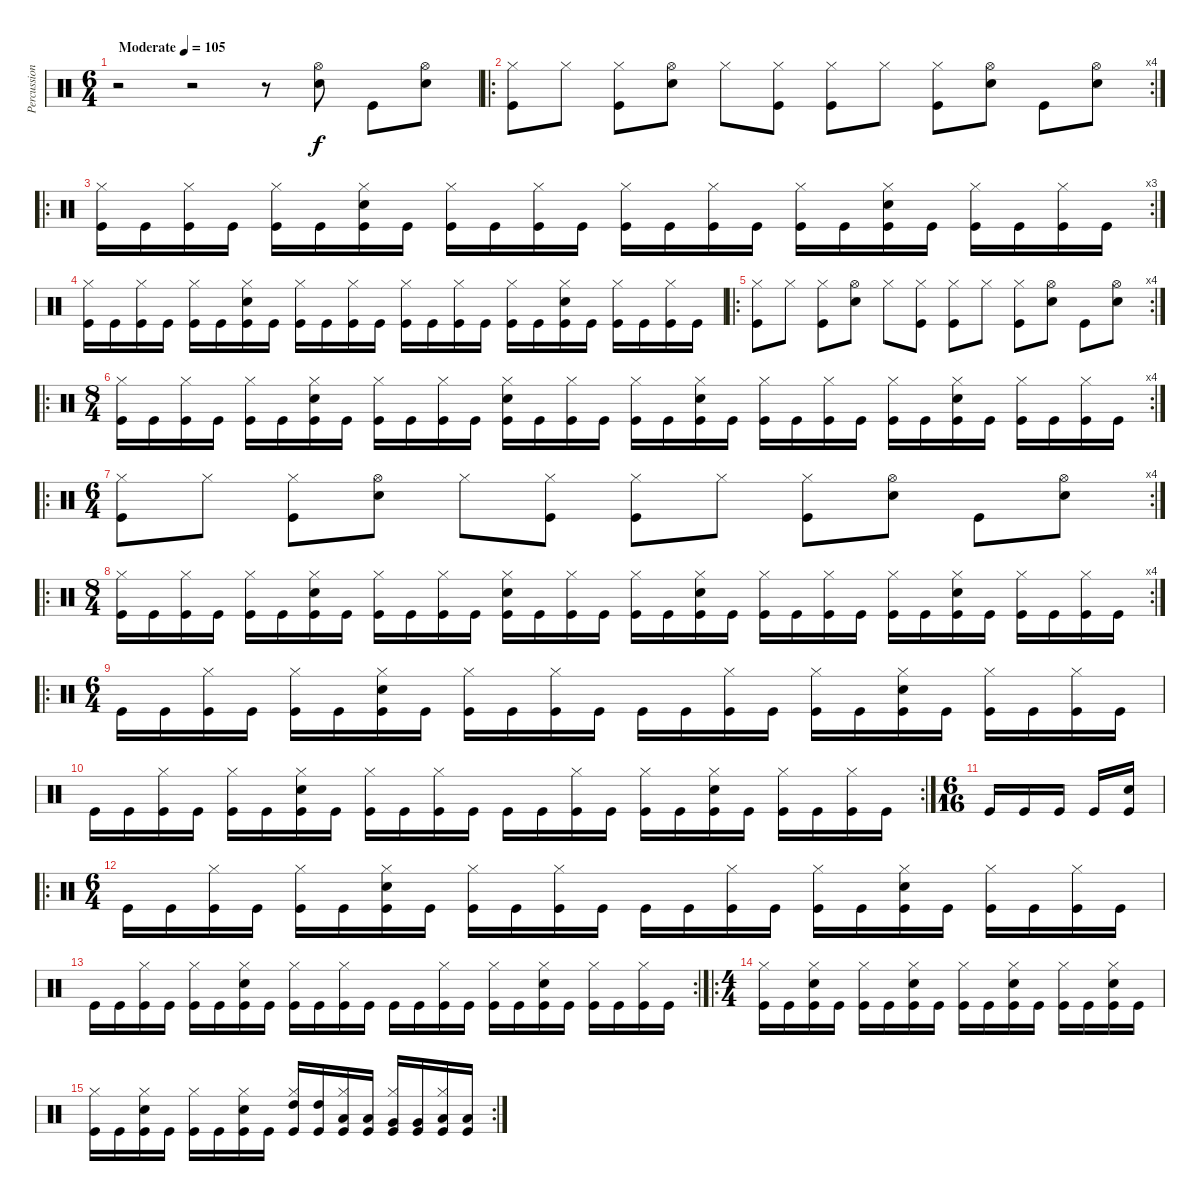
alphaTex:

\track ("Percussion" "Percussion") {instrument percussion}
\staff {score}
\articulation defaults
\ts (6 4)
\tempo (105 "Moderate")
\clef neutral
\ks c
r.2{dy f} r.2 r.8 ("Hi-Hat (open)" "Snare (hit) 2").8 "Kick (hit)".8 ("Hi-Hat (open)" "Snare (hit) 2").8 |
\ro
\rc 4
("Hi-Hat (closed)" "Kick (hit)").8 "Hi-Hat (closed)".8 ("Hi-Hat (closed)" "Kick (hit)").8 ("Hi-Hat (open)" "Electric Snare (hit)").8 "Hi-Hat (closed)".8 ("Hi-Hat (closed)" "Kick (hit)").8 ("Hi-Hat (closed)" "Kick (hit)").8 "Hi-Hat (closed)".8 ("Hi-Hat (closed)" "Kick (hit)").8 ("Hi-Hat (open)" "Electric Snare (hit)").8 "Kick (hit)".8 ("Hi-Hat (open)" "Electric Snare (hit)").8 |
\ro
\rc 3
("Hi-Hat (closed)" "Kick (hit)").16 "Kick (hit)".16 ("Hi-Hat (closed)" "Kick (hit)").16 "Kick (hit)".16 ("Hi-Hat (closed)" "Kick (hit)").16 "Kick (hit)".16 ("Hi-Hat (closed)" "Electric Snare (hit)" "Kick (hit)").16 "Kick (hit)".16 ("Hi-Hat (closed)" "Kick (hit)").16 "Kick (hit)".16 ("Hi-Hat (closed)" "Kick (hit)").16 "Kick (hit)".16 ("Hi-Hat (closed)" "Kick (hit)").16 "Kick (hit)".16 ("Hi-Hat (closed)" "Kick (hit)").16 "Kick (hit)".16 ("Hi-Hat (closed)" "Kick (hit)").16 "Kick (hit)".16 ("Hi-Hat (closed)" "Electric Snare (hit)" "Kick (hit)").16 "Kick (hit)".16 ("Hi-Hat (closed)" "Kick (hit)").16 "Kick (hit)".16 ("Hi-Hat (closed)" "Kick (hit)").16 "Kick (hit)".16 |
("Hi-Hat (closed)" "Kick (hit)").16 "Kick (hit)".16 ("Hi-Hat (closed)" "Kick (hit)").16 "Kick (hit)".16 ("Hi-Hat (closed)" "Kick (hit)").16 "Kick (hit)".16 ("Hi-Hat (closed)" "Electric Snare (hit)" "Kick (hit)").16 "Kick (hit)".16 ("Hi-Hat (closed)" "Kick (hit)").16 "Kick (hit)".16 ("Hi-Hat (closed)" "Kick (hit)").16 "Kick (hit)".16 ("Hi-Hat (closed)" "Kick (hit)").16 "Kick (hit)".16 ("Hi-Hat (closed)" "Kick (hit)").16 "Kick (hit)".16 ("Hi-Hat (closed)" "Kick (hit)").16 "Kick (hit)".16 ("Hi-Hat (closed)" "Electric Snare (hit)" "Kick (hit)").16 "Kick (hit)".16 ("Hi-Hat (closed)" "Kick (hit)").16 "Kick (hit)".16 ("Hi-Hat (closed)" "Kick (hit)").16 "Kick (hit)".16 |
\ro
\rc 4
("Hi-Hat (closed)" "Kick (hit)").8 "Hi-Hat (closed)".8 ("Hi-Hat (closed)" "Kick (hit)").8 ("Hi-Hat (open)" "Electric Snare (hit)").8 "Hi-Hat (closed)".8 ("Hi-Hat (closed)" "Kick (hit)").8 ("Hi-Hat (closed)" "Kick (hit)").8 "Hi-Hat (closed)".8 ("Hi-Hat (closed)" "Kick (hit)").8 ("Hi-Hat (open)" "Electric Snare (hit)").8 "Kick (hit)".8 ("Hi-Hat (open)" "Electric Snare (hit)").8 |
\ro
\rc 4
\ts (8 4)
("Hi-Hat (closed)" "Kick (hit)").16 "Kick (hit)".16 ("Hi-Hat (closed)" "Kick (hit)").16 "Kick (hit)".16 ("Hi-Hat (closed)" "Kick (hit)").16 "Kick (hit)".16 ("Hi-Hat (closed)" "Electric Snare (hit)" "Kick (hit)").16 "Kick (hit)".16 ("Hi-Hat (closed)" "Kick (hit)").16 "Kick (hit)".16 ("Hi-Hat (closed)" "Kick (hit)").16 "Kick (hit)".16 ("Hi-Hat (closed)" "Electric Snare (hit)" "Kick (hit)").16 "Kick (hit)".16 ("Hi-Hat (closed)" "Kick (hit)").16 "Kick (hit)".16 ("Hi-Hat (closed)" "Kick (hit)").16 "Kick (hit)".16 ("Hi-Hat (closed)" "Electric Snare (hit)" "Kick (hit)").16 "Kick (hit)".16 ("Hi-Hat (closed)" "Kick (hit)").16 "Kick (hit)".16 ("Hi-Hat (closed)" "Kick (hit)").16 "Kick (hit)".16 ("Hi-Hat (closed)" "Kick (hit)").16 "Kick (hit)".16 ("Hi-Hat (closed)" "Electric Snare (hit)" "Kick (hit)").16 "Kick (hit)".16 ("Hi-Hat (closed)" "Kick (hit)").16 "Kick (hit)".16 ("Hi-Hat (closed)" "Kick (hit)").16 "Kick (hit)".16 |
\ro
\rc 4
\ts (6 4)
("Hi-Hat (closed)" "Kick (hit)").8 "Hi-Hat (closed)".8 ("Hi-Hat (closed)" "Kick (hit)").8 ("Hi-Hat (open)" "Electric Snare (hit)").8 "Hi-Hat (closed)".8 ("Hi-Hat (closed)" "Kick (hit)").8 ("Hi-Hat (closed)" "Kick (hit)").8 "Hi-Hat (closed)".8 ("Hi-Hat (closed)" "Kick (hit)").8 ("Hi-Hat (open)" "Electric Snare (hit)").8 "Kick (hit)".8 ("Hi-Hat (open)" "Electric Snare (hit)").8 |
\ro
\rc 4
\ts (8 4)
("Hi-Hat (closed)" "Kick (hit)").16 "Kick (hit)".16 ("Hi-Hat (closed)" "Kick (hit)").16 "Kick (hit)".16 ("Hi-Hat (closed)" "Kick (hit)").16 "Kick (hit)".16 ("Hi-Hat (closed)" "Electric Snare (hit)" "Kick (hit)").16 "Kick (hit)".16 ("Hi-Hat (closed)" "Kick (hit)").16 "Kick (hit)".16 ("Hi-Hat (closed)" "Kick (hit)").16 "Kick (hit)".16 ("Hi-Hat (closed)" "Electric Snare (hit)" "Kick (hit)").16 "Kick (hit)".16 ("Hi-Hat (closed)" "Kick (hit)").16 "Kick (hit)".16 ("Hi-Hat (closed)" "Kick (hit)").16 "Kick (hit)".16 ("Hi-Hat (closed)" "Electric Snare (hit)" "Kick (hit)").16 "Kick (hit)".16 ("Hi-Hat (closed)" "Kick (hit)").16 "Kick (hit)".16 ("Hi-Hat (closed)" "Kick (hit)").16 "Kick (hit)".16 ("Hi-Hat (closed)" "Kick (hit)").16 "Kick (hit)".16 ("Hi-Hat (closed)" "Electric Snare (hit)" "Kick (hit)").16 "Kick (hit)".16 ("Hi-Hat (closed)" "Kick (hit)").16 "Kick (hit)".16 ("Hi-Hat (closed)" "Kick (hit)").16 "Kick (hit)".16 |
\ro
\ts (6 4)
"Kick (hit)".16 "Kick (hit)".16 ("Hi-Hat (closed)" "Kick (hit)").16 "Kick (hit)".16 ("Hi-Hat (closed)" "Kick (hit)").16 "Kick (hit)".16 ("Hi-Hat (closed)" "Electric Snare (hit)" "Kick (hit)").16 "Kick (hit)".16 ("Hi-Hat (closed)" "Kick (hit)").16 "Kick (hit)".16 ("Hi-Hat (closed)" "Kick (hit)").16 "Kick (hit)".16 "Kick (hit)".16 "Kick (hit)".16 ("Hi-Hat (closed)" "Kick (hit)").16 "Kick (hit)".16 ("Hi-Hat (closed)" "Kick (hit)").16 "Kick (hit)".16 ("Hi-Hat (closed)" "Electric Snare (hit)" "Kick (hit)").16 "Kick (hit)".16 ("Hi-Hat (closed)" "Kick (hit)").16 "Kick (hit)".16 ("Hi-Hat (closed)" "Kick (hit)").16 "Kick (hit)".16 |
\rc 2 "Kick (hit)".16 "Kick (hit)".16
("Hi-Hat (closed)" "Kick (hit)").16 "Kick (hit)".16 ("Hi-Hat (closed)" "Kick (hit)").16 "Kick (hit)".16 ("Hi-Hat (closed)" "Electric Snare (hit)" "Kick (hit)").16 "Kick (hit)".16 ("Hi-Hat (closed)" "Kick (hit)").16 "Kick (hit)".16 ("Hi-Hat (closed)" "Kick (hit)").16 "Kick (hit)".16 "Kick (hit)".16 "Kick (hit)".16 ("Hi-Hat (closed)" "Kick (hit)").16 "Kick (hit)".16 ("Hi-Hat (closed)" "Kick (hit)").16 "Kick (hit)".16 ("Hi-Hat (closed)" "Electric Snare (hit)" "Kick (hit)").16 "Kick (hit)".16 ("Hi-Hat (closed)" "Kick (hit)").16 "Kick (hit)".16 ("Hi-Hat (closed)" "Kick (hit)").16 "Kick (hit)".16 |
\ts (6 16)
"Kick (hit)".16 "Kick (hit)".16 "Kick (hit)".16 "Kick (hit)".16 ("Electric Snare (hit)" "Kick (hit)").16 |
\ro
\ts (6 4)
"Kick (hit)".16 "Kick (hit)".16 ("Hi-Hat (closed)" "Kick (hit)").16 "Kick (hit)".16 ("Hi-Hat (closed)" "Kick (hit)").16 "Kick (hit)".16 ("Hi-Hat (closed)" "Electric Snare (hit)" "Kick (hit)").16 "Kick (hit)".16 ("Hi-Hat (closed)" "Kick (hit)").16 "Kick (hit)".16 ("Hi-Hat (closed)" "Kick (hit)").16 "Kick (hit)".16 "Kick (hit)".16 "Kick (hit)".16 ("Hi-Hat (closed)" "Kick (hit)").16 "Kick (hit)".16 ("Hi-Hat (closed)" "Kick (hit)").16 "Kick (hit)".16 ("Hi-Hat (closed)" "Electric Snare (hit)" "Kick (hit)").16 "Kick (hit)".16 ("Hi-Hat (closed)" "Kick (hit)").16 "Kick (hit)".16 ("Hi-Hat (closed)" "Kick (hit)").16 "Kick (hit)".16 |
\rc 2 "Kick (hit)".16 "Kick (hit)".16
("Hi-Hat (closed)" "Kick (hit)").16 "Kick (hit)".16 ("Hi-Hat (closed)" "Kick (hit)").16 "Kick (hit)".16 ("Hi-Hat (closed)" "Electric Snare (hit)" "Kick (hit)").16 "Kick (hit)".16 ("Hi-Hat (closed)" "Kick (hit)").16 "Kick (hit)".16 ("Hi-Hat (closed)" "Kick (hit)").16 "Kick (hit)".16 "Kick (hit)".16 "Kick (hit)".16 ("Hi-Hat (closed)" "Kick (hit)").16 "Kick (hit)".16 ("Hi-Hat (closed)" "Kick (hit)").16 "Kick (hit)".16 ("Hi-Hat (closed)" "Electric Snare (hit)" "Kick (hit)").16 "Kick (hit)".16 ("Hi-Hat (closed)" "Kick (hit)").16 "Kick (hit)".16 ("Hi-Hat (closed)" "Kick (hit)").16 "Kick (hit)".16 |
\ro
\ts (4 4)
("Hi-Hat (closed)" "Kick (hit)").16 "Kick (hit)".16 ("Hi-Hat (closed)" "Electric Snare (hit)" "Kick (hit)").16 "Kick (hit)".16 ("Hi-Hat (closed)" "Kick (hit)").16 "Kick (hit)".16 ("Hi-Hat (closed)" "Electric Snare (hit)" "Kick (hit)").16 "Kick (hit)".16 ("Hi-Hat (closed)" "Kick (hit)").16 "Kick (hit)".16 ("Hi-Hat (closed)" "Electric Snare (hit)" "Kick (hit)").16 "Kick (hit)".16 ("Hi-Hat (closed)" "Kick (hit)").16 "Kick (hit)".16 ("Hi-Hat (closed)" "Electric Snare (hit)" "Kick (hit)").16 "Kick (hit)".16 |
\rc 2
("Hi-Hat (closed)" "Kick (hit)").16 "Kick (hit)".16 ("Hi-Hat (closed)" "Electric Snare (hit)" "Kick (hit)").16 "Kick (hit)".16 ("Hi-Hat (closed)" "Kick (hit)").16 "Kick (hit)".16 ("Hi-Hat (closed)" "Electric Snare (hit)" "Kick (hit)").16 "Kick (hit)".16 ("Hi-Hat (closed)" "High Tom (hit)" "Kick (hit)").16 ("High Tom (hit)" "Kick (hit)").16 ("Hi-Hat (closed)" "Low Tom (hit)" "Kick (hit)").16 ("Low Tom (hit)" "Kick (hit)").16 ("Hi-Hat (closed)" "Very Low Tom (hit)" "Kick (hit)").16 ("Very Low Tom (hit)" "Kick (hit)").16 ("Hi-Hat (closed)" "Low Floor Tom (hit)" "Kick (hit)").16 ("Low Floor Tom (hit)" "Kick (hit)").16
